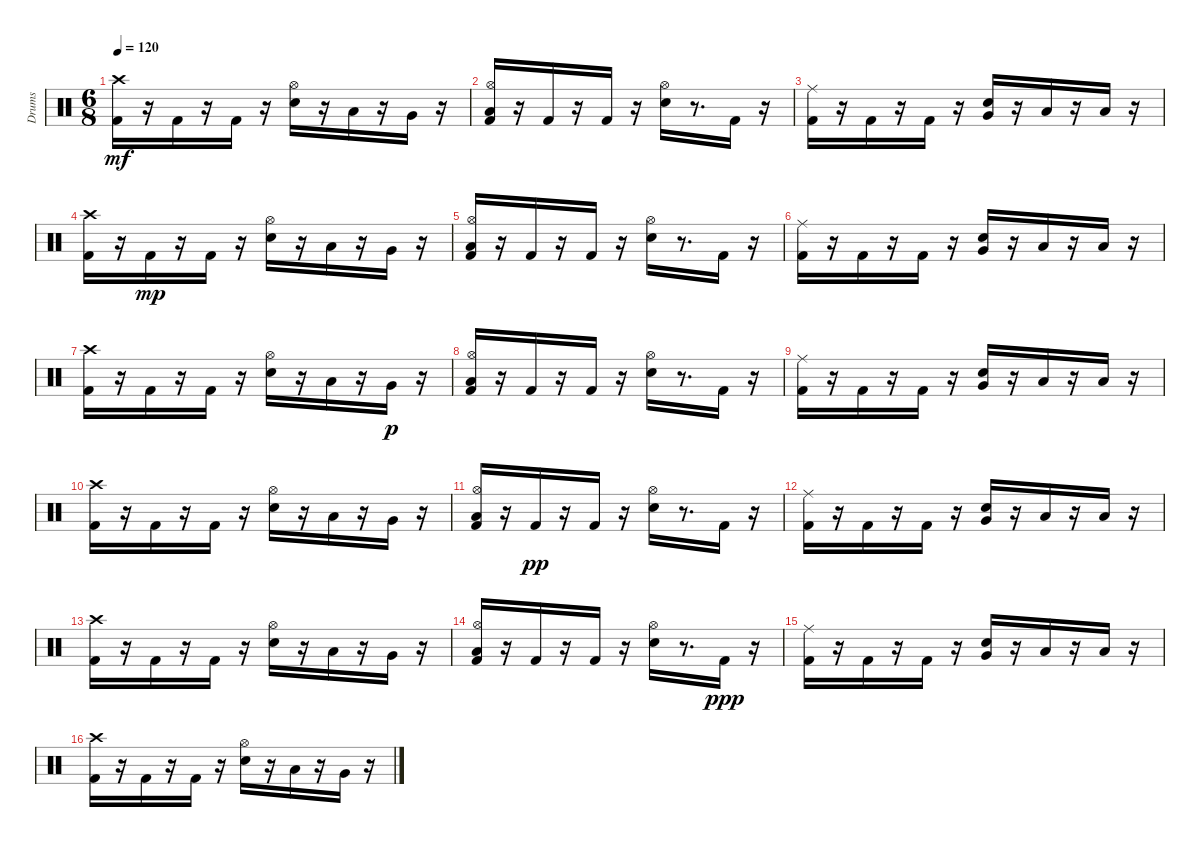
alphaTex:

\track ("Drums" "Drums") {instrument percussion}
\staff {score}
\articulation defaults
\ts (6 8)
\tempo 120
\clef neutral
\ks c
("Crash high (hit)" "Kick (hit) 2").16{dy mf} r.16 "Kick (hit) 2".16 r.16 "Kick (hit) 2".16 r.16 ("Hi-Hat (open)" "Snare (hit) 2").16 r.16 "Low Tom (hit)".16 r.16 "Very Low Tom (hit)".16 r.16 |
("Hi-Hat (open)" "Low Floor Tom (hit)" "Kick (hit) 2").16 r.16 "Kick (hit) 2".16 r.16 "Kick (hit) 2".16 r.16 ("Hi-Hat (open)" "Snare (hit) 2").16 r.8{d} "Kick (hit) 2".16 r.16 |
("Ride (middle)" "Kick (hit) 2").16 r.16 "Kick (hit) 2".16 r.16 "Kick (hit) 2".16 r.16 ("Very Low Tom (hit)" "Snare (hit) 2").16 r.16 "Low Floor Tom (hit)".16 r.16 "Low Floor Tom (hit)".16 r.16 |
("Crash high (hit)" "Kick (hit) 2").16 r.16 "Kick (hit) 2".16{dy mp} r.16 "Kick (hit) 2".16 r.16 ("Hi-Hat (open)" "Snare (hit) 2").16 r.16 "Low Tom (hit)".16 r.16 "Very Low Tom (hit)".16 r.16 |
("Hi-Hat (open)" "Low Floor Tom (hit)" "Kick (hit) 2").16 r.16 "Kick (hit) 2".16 r.16 "Kick (hit) 2".16 r.16 ("Hi-Hat (open)" "Snare (hit) 2").16 r.8{d} "Kick (hit) 2".16 r.16 |
("Ride (middle)" "Kick (hit) 2").16 r.16 "Kick (hit) 2".16 r.16 "Kick (hit) 2".16 r.16 ("Very Low Tom (hit)" "Snare (hit) 2").16 r.16 "Low Floor Tom (hit)".16 r.16 "Low Floor Tom (hit)".16 r.16 |
("Crash high (hit)" "Kick (hit) 2").16 r.16 "Kick (hit) 2".16 r.16 "Kick (hit) 2".16 r.16 ("Hi-Hat (open)" "Snare (hit) 2").16 r.16 "Low Tom (hit)".16 r.16 "Very Low Tom (hit)".16{dy p} r.16 |
("Hi-Hat (open)" "Low Floor Tom (hit)" "Kick (hit) 2").16 r.16 "Kick (hit) 2".16 r.16 "Kick (hit) 2".16 r.16 ("Hi-Hat (open)" "Snare (hit) 2").16 r.8{d} "Kick (hit) 2".16 r.16 |
("Ride (middle)" "Kick (hit) 2").16 r.16 "Kick (hit) 2".16 r.16 "Kick (hit) 2".16 r.16 ("Very Low Tom (hit)" "Snare (hit) 2").16 r.16 "Low Floor Tom (hit)".16 r.16 "Low Floor Tom (hit)".16 r.16 |
("Crash high (hit)" "Kick (hit) 2").16 r.16 "Kick (hit) 2".16 r.16 "Kick (hit) 2".16 r.16 ("Hi-Hat (open)" "Snare (hit) 2").16 r.16 "Low Tom (hit)".16 r.16 "Very Low Tom (hit)".16 r.16 |
("Hi-Hat (open)" "Low Floor Tom (hit)" "Kick (hit) 2").16 r.16 "Kick (hit) 2".16{dy pp} r.16 "Kick (hit) 2".16 r.16 ("Hi-Hat (open)" "Snare (hit) 2").16 r.8{d} "Kick (hit) 2".16 r.16 |
("Ride (middle)" "Kick (hit) 2").16 r.16 "Kick (hit) 2".16 r.16 "Kick (hit) 2".16 r.16 ("Very Low Tom (hit)" "Snare (hit) 2").16 r.16 "Low Floor Tom (hit)".16 r.16 "Low Floor Tom (hit)".16 r.16 |
("Crash high (hit)" "Kick (hit) 2").16 r.16 "Kick (hit) 2".16 r.16 "Kick (hit) 2".16 r.16 ("Hi-Hat (open)" "Snare (hit) 2").16 r.16 "Low Tom (hit)".16 r.16 "Very Low Tom (hit)".16 r.16 |
("Hi-Hat (open)" "Low Floor Tom (hit)" "Kick (hit) 2").16 r.16 "Kick (hit) 2".16 r.16 "Kick (hit) 2".16 r.16 ("Hi-Hat (open)" "Snare (hit) 2").16 r.8{d} "Kick (hit) 2".16{dy ppp} r.16 |
("Ride (middle)" "Kick (hit) 2").16 r.16 "Kick (hit) 2".16 r.16 "Kick (hit) 2".16 r.16 ("Very Low Tom (hit)" "Snare (hit) 2").16 r.16 "Low Floor Tom (hit)".16 r.16 "Low Floor Tom (hit)".16 r.16 |
("Crash high (hit)" "Kick (hit) 2").16 r.16 "Kick (hit) 2".16 r.16 "Kick (hit) 2".16 r.16 ("Hi-Hat (open)" "Snare (hit) 2").16 r.16 "Low Tom (hit)".16 r.16 "Very Low Tom (hit)".16 r.16
